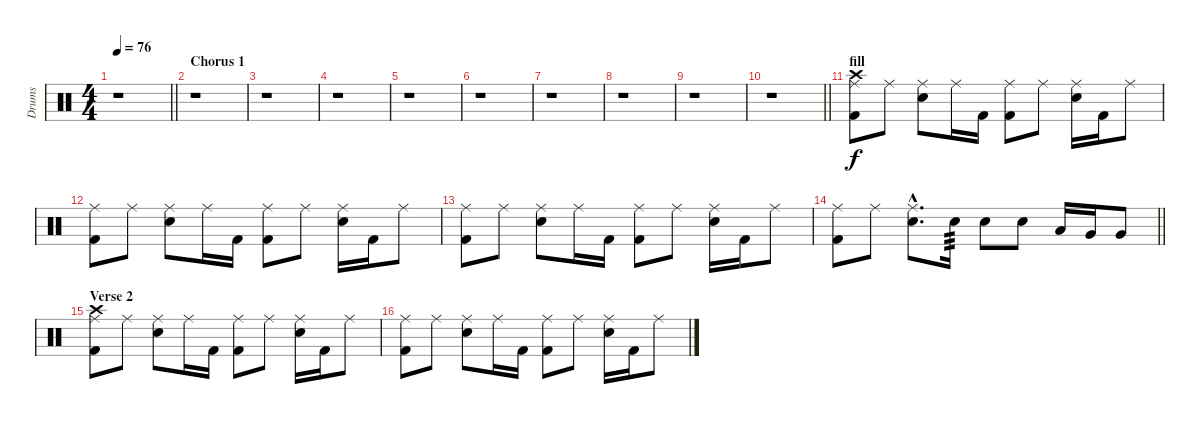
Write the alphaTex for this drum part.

\track ("Drums" "Drums") {instrument percussion}
\staff {score}
\articulation defaults
\ts (4 4)
\tempo 76
\clef neutral
\barLineRight lightlight
\ks c
r.1{dy f} |
\section ("" "Chorus 1")
r.1 |
r.1 |
r.1 |
r.1 |
r.1 |
r.1 |
r.1 |
r.1 |
\barLineRight lightlight
r.1 |
\section ("" "fill")
("Crash high (hit)" "Ride (middle)" "Kick (hit) 2").8 "Ride (middle)".8 ("Ride (middle)" "Snare (hit) 2").8 "Ride (middle)".16 "Kick (hit) 2".16 ("Ride (middle)" "Kick (hit) 2").8 "Ride (middle)".8 ("Ride (middle)" "Snare (hit) 2").16 "Kick (hit) 2".16 "Ride (middle)".8 |
("Ride (middle)" "Kick (hit) 2").8 "Ride (middle)".8 ("Ride (middle)" "Snare (hit) 2").8 "Ride (middle)".16 "Kick (hit) 2".16 ("Ride (middle)" "Kick (hit) 2").8 "Ride (middle)".8 ("Ride (middle)" "Snare (hit) 2").16 "Kick (hit) 2".16 "Ride (middle)".8 |
("Ride (middle)" "Kick (hit) 2").8 "Ride (middle)".8 ("Ride (middle)" "Snare (hit) 2").8 "Ride (middle)".16 "Kick (hit) 2".16 ("Ride (middle)" "Kick (hit) 2").8 "Ride (middle)".8 ("Ride (middle)" "Snare (hit) 2").16 "Kick (hit) 2".16 "Ride (middle)".8 |
\barLineRight lightlight
("Ride (middle)" "Kick (hit) 2").8 "Ride (middle)".8 ("Ride (middle)"{hac} "Snare (hit) 2"{hac}).8{d} "Snare (hit) 2".16{tp 3} "Snare (hit) 2".8 "Snare (hit) 2".8 "Low Tom (hit)".16 "Very Low Tom (hit)".16 "Very Low Tom (hit)".8 |
\section ("" "Verse 2")
("Crash high (hit)" "Ride (middle)" "Kick (hit) 2").8 "Ride (middle)".8 ("Ride (middle)" "Snare (hit) 2").8 "Ride (middle)".16 "Kick (hit) 2".16 ("Ride (middle)" "Kick (hit) 2").8 "Ride (middle)".8 ("Ride (middle)" "Snare (hit) 2").16 "Kick (hit) 2".16 "Ride (middle)".8 |
("Ride (middle)" "Kick (hit) 2").8 "Ride (middle)".8 ("Ride (middle)" "Snare (hit) 2").8 "Ride (middle)".16 "Kick (hit) 2".16 ("Ride (middle)" "Kick (hit) 2").8 "Ride (middle)".8 ("Ride (middle)" "Snare (hit) 2").16 "Kick (hit) 2".16 "Ride (middle)".8
